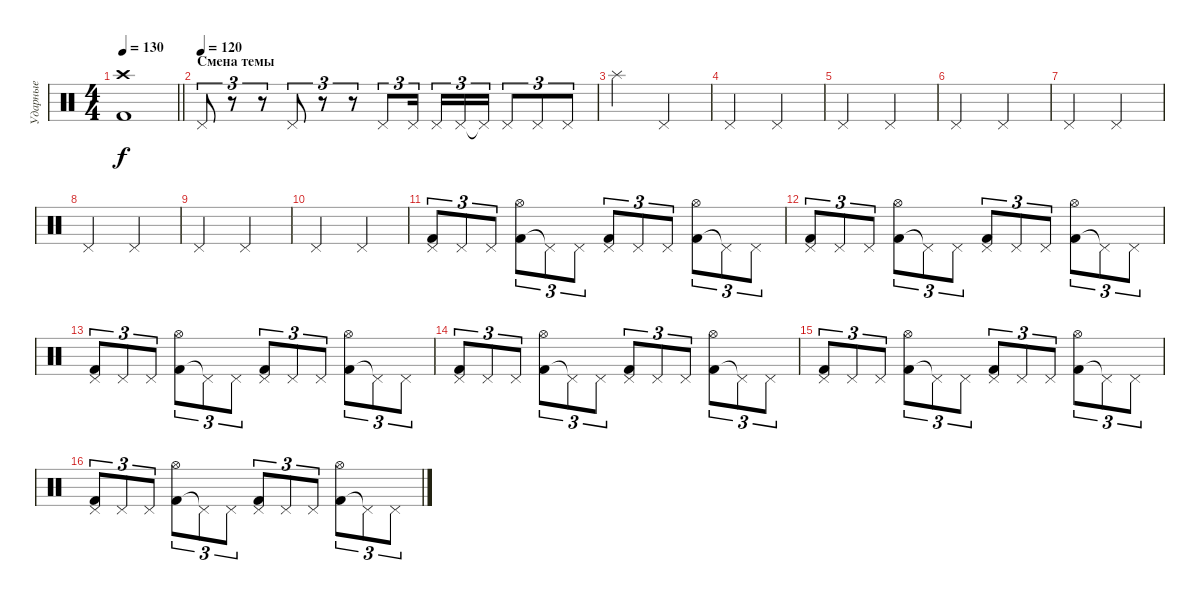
\track ("Ударные" "Ударные") {instrument percussion}
\staff {score}
\articulation defaults
\ts (4 4)
\tempo 130
\clef neutral
\barLineRight lightlight
\ks c
("Kick (hit) 2" "Crash high (hit)").1{dy f} |
\section ("" "Смена темы")
\tempo (120)
"Pedal Hi-Hat (hit)".8{tu (3 2)} r.8{tu (3 2)} r.8{tu (3 2)} "Pedal Hi-Hat (hit)".8{tu (3 2)} r.8{tu (3 2)} r.8{tu (3 2)} "Pedal Hi-Hat (hit)".8{tu (3 2)} "Pedal Hi-Hat (hit)".16{tu (3 2)} "Pedal Hi-Hat (hit)".16{tu (3 2)} "Pedal Hi-Hat (hit)".16{tu (3 2)} "Pedal Hi-Hat (hit)"{t}.16{tu (3 2)} "Pedal Hi-Hat (hit)".8{tu (3 2)} "Pedal Hi-Hat (hit)".8{tu (3 2)} "Pedal Hi-Hat (hit)".8{tu (3 2)} |
"Splash (hit)".2 "Pedal Hi-Hat (hit)".2 |
"Pedal Hi-Hat (hit)".2 "Pedal Hi-Hat (hit)".2 |
"Pedal Hi-Hat (hit)".2 "Pedal Hi-Hat (hit)".2 |
"Pedal Hi-Hat (hit)".2 "Pedal Hi-Hat (hit)".2 |
"Pedal Hi-Hat (hit)".2 "Pedal Hi-Hat (hit)".2 |
"Pedal Hi-Hat (hit)".2 "Pedal Hi-Hat (hit)".2 |
"Pedal Hi-Hat (hit)".2 "Pedal Hi-Hat (hit)".2 |
"Pedal Hi-Hat (hit)".2 "Pedal Hi-Hat (hit)".2 |
("Kick (hit) 2" "Pedal Hi-Hat (hit)").8{tu (3 2)} "Pedal Hi-Hat (hit)".8{tu (3 2)} "Pedal Hi-Hat (hit)".8{tu (3 2)} ("Kick (hit) 2" "Hi-Hat (open)").8{tu (3 2)} "Pedal Hi-Hat (hit)"{t}.8{tu (3 2)} "Pedal Hi-Hat (hit)".8{tu (3 2)} ("Kick (hit) 2" "Pedal Hi-Hat (hit)").8{tu (3 2)} "Pedal Hi-Hat (hit)".8{tu (3 2)} "Pedal Hi-Hat (hit)".8{tu (3 2)} ("Kick (hit) 2" "Hi-Hat (open)").8{tu (3 2)} "Pedal Hi-Hat (hit)"{t}.8{tu (3 2)} "Pedal Hi-Hat (hit)".8{tu (3 2)} |
("Kick (hit) 2" "Pedal Hi-Hat (hit)").8{tu (3 2)} "Pedal Hi-Hat (hit)".8{tu (3 2)} "Pedal Hi-Hat (hit)".8{tu (3 2)} ("Kick (hit) 2" "Hi-Hat (open)").8{tu (3 2)} "Pedal Hi-Hat (hit)"{t}.8{tu (3 2)} "Pedal Hi-Hat (hit)".8{tu (3 2)} ("Kick (hit) 2" "Pedal Hi-Hat (hit)").8{tu (3 2)} "Pedal Hi-Hat (hit)".8{tu (3 2)} "Pedal Hi-Hat (hit)".8{tu (3 2)} ("Kick (hit) 2" "Hi-Hat (open)").8{tu (3 2)} "Pedal Hi-Hat (hit)"{t}.8{tu (3 2)} "Pedal Hi-Hat (hit)".8{tu (3 2)} |
("Kick (hit) 2" "Pedal Hi-Hat (hit)").8{tu (3 2)} "Pedal Hi-Hat (hit)".8{tu (3 2)} "Pedal Hi-Hat (hit)".8{tu (3 2)} ("Kick (hit) 2" "Hi-Hat (open)").8{tu (3 2)} "Pedal Hi-Hat (hit)"{t}.8{tu (3 2)} "Pedal Hi-Hat (hit)".8{tu (3 2)} ("Kick (hit) 2" "Pedal Hi-Hat (hit)").8{tu (3 2)} "Pedal Hi-Hat (hit)".8{tu (3 2)} "Pedal Hi-Hat (hit)".8{tu (3 2)} ("Kick (hit) 2" "Hi-Hat (open)").8{tu (3 2)} "Pedal Hi-Hat (hit)"{t}.8{tu (3 2)} "Pedal Hi-Hat (hit)".8{tu (3 2)} |
("Kick (hit) 2" "Pedal Hi-Hat (hit)").8{tu (3 2)} "Pedal Hi-Hat (hit)".8{tu (3 2)} "Pedal Hi-Hat (hit)".8{tu (3 2)} ("Kick (hit) 2" "Hi-Hat (open)").8{tu (3 2)} "Pedal Hi-Hat (hit)"{t}.8{tu (3 2)} "Pedal Hi-Hat (hit)".8{tu (3 2)} ("Kick (hit) 2" "Pedal Hi-Hat (hit)").8{tu (3 2)} "Pedal Hi-Hat (hit)".8{tu (3 2)} "Pedal Hi-Hat (hit)".8{tu (3 2)} ("Kick (hit) 2" "Hi-Hat (open)").8{tu (3 2)} "Pedal Hi-Hat (hit)"{t}.8{tu (3 2)} "Pedal Hi-Hat (hit)".8{tu (3 2)} |
("Kick (hit) 2" "Pedal Hi-Hat (hit)").8{tu (3 2)} "Pedal Hi-Hat (hit)".8{tu (3 2)} "Pedal Hi-Hat (hit)".8{tu (3 2)} ("Kick (hit) 2" "Hi-Hat (open)").8{tu (3 2)} "Pedal Hi-Hat (hit)"{t}.8{tu (3 2)} "Pedal Hi-Hat (hit)".8{tu (3 2)} ("Kick (hit) 2" "Pedal Hi-Hat (hit)").8{tu (3 2)} "Pedal Hi-Hat (hit)".8{tu (3 2)} "Pedal Hi-Hat (hit)".8{tu (3 2)} ("Kick (hit) 2" "Hi-Hat (open)").8{tu (3 2)} "Pedal Hi-Hat (hit)"{t}.8{tu (3 2)} "Pedal Hi-Hat (hit)".8{tu (3 2)} |
("Kick (hit) 2" "Pedal Hi-Hat (hit)").8{tu (3 2)} "Pedal Hi-Hat (hit)".8{tu (3 2)} "Pedal Hi-Hat (hit)".8{tu (3 2)} ("Kick (hit) 2" "Hi-Hat (open)").8{tu (3 2)} "Pedal Hi-Hat (hit)"{t}.8{tu (3 2)} "Pedal Hi-Hat (hit)".8{tu (3 2)} ("Kick (hit) 2" "Pedal Hi-Hat (hit)").8{tu (3 2)} "Pedal Hi-Hat (hit)".8{tu (3 2)} "Pedal Hi-Hat (hit)".8{tu (3 2)} ("Kick (hit) 2" "Hi-Hat (open)").8{tu (3 2)} "Pedal Hi-Hat (hit)"{t}.8{tu (3 2)} "Pedal Hi-Hat (hit)".8{tu (3 2)}
